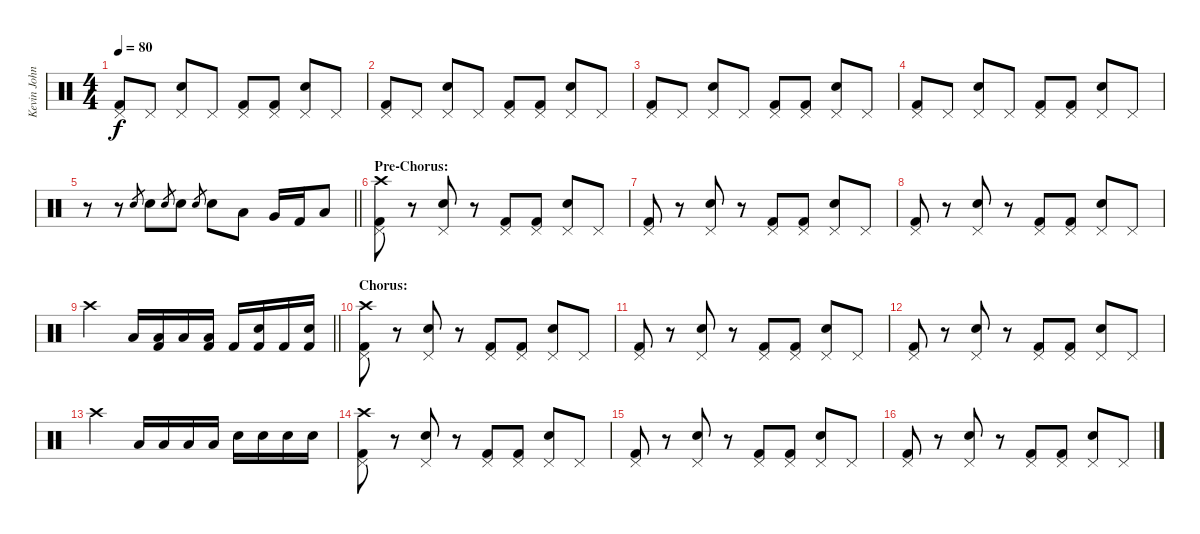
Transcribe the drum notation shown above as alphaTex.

\track ("Kevin John Grace" "Kevin John") {instrument percussion}
\staff {score}
\articulation defaults
\ts (4 4)
\tempo 80
\clef neutral
\ks c
("Pedal Hi-Hat (hit)" "Kick (hit) 2").8{dy f} "Pedal Hi-Hat (hit)".8 ("Pedal Hi-Hat (hit)" "Snare (hit) 2").8 "Pedal Hi-Hat (hit)".8 ("Pedal Hi-Hat (hit)" "Kick (hit) 2").8 ("Pedal Hi-Hat (hit)" "Kick (hit) 2").8 ("Pedal Hi-Hat (hit)" "Snare (hit) 2").8 "Pedal Hi-Hat (hit)".8 |
("Pedal Hi-Hat (hit)" "Kick (hit) 2").8 "Pedal Hi-Hat (hit)".8 ("Pedal Hi-Hat (hit)" "Snare (hit) 2").8 "Pedal Hi-Hat (hit)".8 ("Pedal Hi-Hat (hit)" "Kick (hit) 2").8 ("Pedal Hi-Hat (hit)" "Kick (hit) 2").8 ("Pedal Hi-Hat (hit)" "Snare (hit) 2").8 "Pedal Hi-Hat (hit)".8 |
("Pedal Hi-Hat (hit)" "Kick (hit) 2").8 "Pedal Hi-Hat (hit)".8 ("Pedal Hi-Hat (hit)" "Snare (hit) 2").8 "Pedal Hi-Hat (hit)".8 ("Pedal Hi-Hat (hit)" "Kick (hit) 2").8 ("Pedal Hi-Hat (hit)" "Kick (hit) 2").8 ("Pedal Hi-Hat (hit)" "Snare (hit) 2").8 "Pedal Hi-Hat (hit)".8 |
("Pedal Hi-Hat (hit)" "Kick (hit) 2").8 "Pedal Hi-Hat (hit)".8 ("Pedal Hi-Hat (hit)" "Snare (hit) 2").8 "Pedal Hi-Hat (hit)".8 ("Pedal Hi-Hat (hit)" "Kick (hit) 2").8 ("Pedal Hi-Hat (hit)" "Kick (hit) 2").8 ("Pedal Hi-Hat (hit)" "Snare (hit) 2").8 "Pedal Hi-Hat (hit)".8 |
\barLineRight lightlight
r.8 r.8 "Snare (hit) 2".8{gr} "Snare (hit) 2".8 "Snare (hit) 2".8{gr} "Snare (hit) 2".8 "Snare (hit) 2".8{gr} "Snare (hit) 2".8 "Low Tom (hit)".8 "Very Low Tom (hit)".16 "Kick (hit) 2".16 "Low Floor Tom (hit)".8 |
\section ("" "Pre-Chorus:")
("Pedal Hi-Hat (hit)" "Crash high (hit)" "Kick (hit) 2").8 r.8 ("Pedal Hi-Hat (hit)" "Snare (hit) 2").8 r.8 ("Pedal Hi-Hat (hit)" "Kick (hit) 2").8 ("Pedal Hi-Hat (hit)" "Kick (hit) 2").8 ("Pedal Hi-Hat (hit)" "Snare (hit) 2").8 "Pedal Hi-Hat (hit)".8 |
("Pedal Hi-Hat (hit)" "Kick (hit) 2").8 r.8 ("Pedal Hi-Hat (hit)" "Snare (hit) 2").8 r.8 ("Pedal Hi-Hat (hit)" "Kick (hit) 2").8 ("Pedal Hi-Hat (hit)" "Kick (hit) 2").8 ("Pedal Hi-Hat (hit)" "Snare (hit) 2").8 "Pedal Hi-Hat (hit)".8 |
("Pedal Hi-Hat (hit)" "Kick (hit) 2").8 r.8 ("Pedal Hi-Hat (hit)" "Snare (hit) 2").8 r.8 ("Pedal Hi-Hat (hit)" "Kick (hit) 2").8 ("Pedal Hi-Hat (hit)" "Kick (hit) 2").8 ("Pedal Hi-Hat (hit)" "Snare (hit) 2").8 "Pedal Hi-Hat (hit)".8 |
\barLineRight lightlight "Crash high (hit)".2 "Low Tom (hit)".16
("Kick (hit) 2" "Low Tom (hit)").16 "Low Tom (hit)".16 ("Kick (hit) 2" "Low Tom (hit)").16 "Kick (hit) 2".16 ("Snare (hit) 2" "Kick (hit) 2").16 "Kick (hit) 2".16 ("Snare (hit) 2" "Kick (hit) 2").16 |
\section ("" "Chorus:")
("Pedal Hi-Hat (hit)" "Crash high (hit)" "Kick (hit) 2").8 r.8 ("Pedal Hi-Hat (hit)" "Snare (hit) 2").8 r.8 ("Pedal Hi-Hat (hit)" "Kick (hit) 2").8 ("Pedal Hi-Hat (hit)" "Kick (hit) 2").8 ("Pedal Hi-Hat (hit)" "Snare (hit) 2").8 "Pedal Hi-Hat (hit)".8 |
("Pedal Hi-Hat (hit)" "Kick (hit) 2").8 r.8 ("Pedal Hi-Hat (hit)" "Snare (hit) 2").8 r.8 ("Pedal Hi-Hat (hit)" "Kick (hit) 2").8 ("Pedal Hi-Hat (hit)" "Kick (hit) 2").8 ("Pedal Hi-Hat (hit)" "Snare (hit) 2").8 "Pedal Hi-Hat (hit)".8 |
("Pedal Hi-Hat (hit)" "Kick (hit) 2").8 r.8 ("Pedal Hi-Hat (hit)" "Snare (hit) 2").8 r.8 ("Pedal Hi-Hat (hit)" "Kick (hit) 2").8 ("Pedal Hi-Hat (hit)" "Kick (hit) 2").8 ("Pedal Hi-Hat (hit)" "Snare (hit) 2").8 "Pedal Hi-Hat (hit)".8 |
"Crash high (hit)".2 "Low Tom (hit)".16 "Low Tom (hit)".16 "Low Tom (hit)".16 "Low Tom (hit)".16 "Snare (hit) 2".16 "Snare (hit) 2".16 "Snare (hit) 2".16 "Snare (hit) 2".16 |
("Pedal Hi-Hat (hit)" "Crash high (hit)" "Kick (hit) 2").8 r.8 ("Pedal Hi-Hat (hit)" "Snare (hit) 2").8 r.8 ("Pedal Hi-Hat (hit)" "Kick (hit) 2").8 ("Pedal Hi-Hat (hit)" "Kick (hit) 2").8 ("Pedal Hi-Hat (hit)" "Snare (hit) 2").8 "Pedal Hi-Hat (hit)".8 |
("Pedal Hi-Hat (hit)" "Kick (hit) 2").8 r.8 ("Pedal Hi-Hat (hit)" "Snare (hit) 2").8 r.8 ("Pedal Hi-Hat (hit)" "Kick (hit) 2").8 ("Pedal Hi-Hat (hit)" "Kick (hit) 2").8 ("Pedal Hi-Hat (hit)" "Snare (hit) 2").8 "Pedal Hi-Hat (hit)".8 |
("Pedal Hi-Hat (hit)" "Kick (hit) 2").8 r.8 ("Pedal Hi-Hat (hit)" "Snare (hit) 2").8 r.8 ("Pedal Hi-Hat (hit)" "Kick (hit) 2").8 ("Pedal Hi-Hat (hit)" "Kick (hit) 2").8 ("Pedal Hi-Hat (hit)" "Snare (hit) 2").8 "Pedal Hi-Hat (hit)".8
